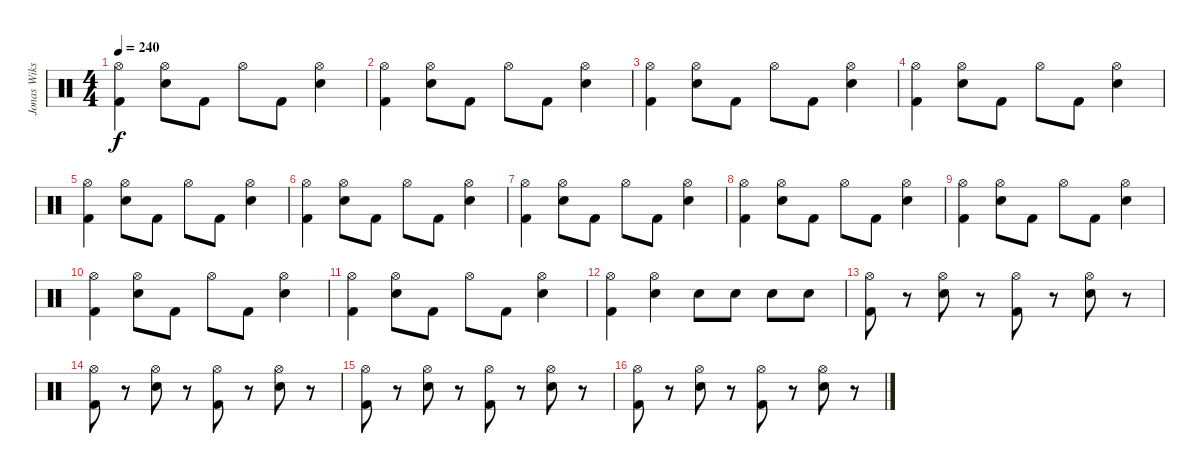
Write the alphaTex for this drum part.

\track ("Jonas Wikstrand" "Jonas Wiks") {instrument percussion}
\staff {score}
\articulation defaults
\ts (4 4)
\tempo 240
\clef neutral
\ks c
("Hi-Hat (open)" "Kick (hit) 2").4{dy f} ("Hi-Hat (open)" "Snare (hit) 2").8 "Kick (hit) 2".8 "Hi-Hat (open)".8 "Kick (hit) 2".8 ("Hi-Hat (open)" "Snare (hit) 2").4 |
("Hi-Hat (open)" "Kick (hit) 2").4 ("Hi-Hat (open)" "Snare (hit) 2").8 "Kick (hit) 2".8 "Hi-Hat (open)".8 "Kick (hit) 2".8 ("Hi-Hat (open)" "Snare (hit) 2").4 |
("Hi-Hat (open)" "Kick (hit) 2").4 ("Hi-Hat (open)" "Snare (hit) 2").8 "Kick (hit) 2".8 "Hi-Hat (open)".8 "Kick (hit) 2".8 ("Hi-Hat (open)" "Snare (hit) 2").4 |
("Hi-Hat (open)" "Kick (hit) 2").4 ("Hi-Hat (open)" "Snare (hit) 2").8 "Kick (hit) 2".8 "Hi-Hat (open)".8 "Kick (hit) 2".8 ("Hi-Hat (open)" "Snare (hit) 2").4 |
("Hi-Hat (open)" "Kick (hit) 2").4 ("Hi-Hat (open)" "Snare (hit) 2").8 "Kick (hit) 2".8 "Hi-Hat (open)".8 "Kick (hit) 2".8 ("Hi-Hat (open)" "Snare (hit) 2").4 |
("Hi-Hat (open)" "Kick (hit) 2").4 ("Hi-Hat (open)" "Snare (hit) 2").8 "Kick (hit) 2".8 "Hi-Hat (open)".8 "Kick (hit) 2".8 ("Hi-Hat (open)" "Snare (hit) 2").4 |
("Hi-Hat (open)" "Kick (hit) 2").4 ("Hi-Hat (open)" "Snare (hit) 2").8 "Kick (hit) 2".8 "Hi-Hat (open)".8 "Kick (hit) 2".8 ("Hi-Hat (open)" "Snare (hit) 2").4 |
("Hi-Hat (open)" "Kick (hit) 2").4 ("Hi-Hat (open)" "Snare (hit) 2").8 "Kick (hit) 2".8 "Hi-Hat (open)".8 "Kick (hit) 2".8 ("Hi-Hat (open)" "Snare (hit) 2").4 |
("Hi-Hat (open)" "Kick (hit) 2").4 ("Hi-Hat (open)" "Snare (hit) 2").8 "Kick (hit) 2".8 "Hi-Hat (open)".8 "Kick (hit) 2".8 ("Hi-Hat (open)" "Snare (hit) 2").4 |
("Hi-Hat (open)" "Kick (hit) 2").4 ("Hi-Hat (open)" "Snare (hit) 2").8 "Kick (hit) 2".8 "Hi-Hat (open)".8 "Kick (hit) 2".8 ("Hi-Hat (open)" "Snare (hit) 2").4 |
("Hi-Hat (open)" "Kick (hit) 2").4 ("Hi-Hat (open)" "Snare (hit) 2").8 "Kick (hit) 2".8 "Hi-Hat (open)".8 "Kick (hit) 2".8 ("Hi-Hat (open)" "Snare (hit) 2").4 |
("Hi-Hat (open)" "Kick (hit) 2").4 ("Hi-Hat (open)" "Snare (hit) 2").4 "Snare (hit) 2".8 "Snare (hit) 2".8 "Snare (hit) 2".8 "Snare (hit) 2".8 |
("Hi-Hat (open)" "Kick (hit) 2").8 r.8 ("Hi-Hat (open)" "Snare (hit) 2").8 r.8 ("Hi-Hat (open)" "Kick (hit) 2").8 r.8 ("Hi-Hat (open)" "Snare (hit) 2").8 r.8 |
("Hi-Hat (open)" "Kick (hit) 2").8 r.8 ("Hi-Hat (open)" "Snare (hit) 2").8 r.8 ("Hi-Hat (open)" "Kick (hit) 2").8 r.8 ("Hi-Hat (open)" "Snare (hit) 2").8 r.8 |
("Hi-Hat (open)" "Kick (hit) 2").8 r.8 ("Hi-Hat (open)" "Snare (hit) 2").8 r.8 ("Hi-Hat (open)" "Kick (hit) 2").8 r.8 ("Hi-Hat (open)" "Snare (hit) 2").8 r.8 |
("Hi-Hat (open)" "Kick (hit) 2").8 r.8 ("Hi-Hat (open)" "Snare (hit) 2").8 r.8 ("Hi-Hat (open)" "Kick (hit) 2").8 r.8 ("Hi-Hat (open)" "Snare (hit) 2").8 r.8
